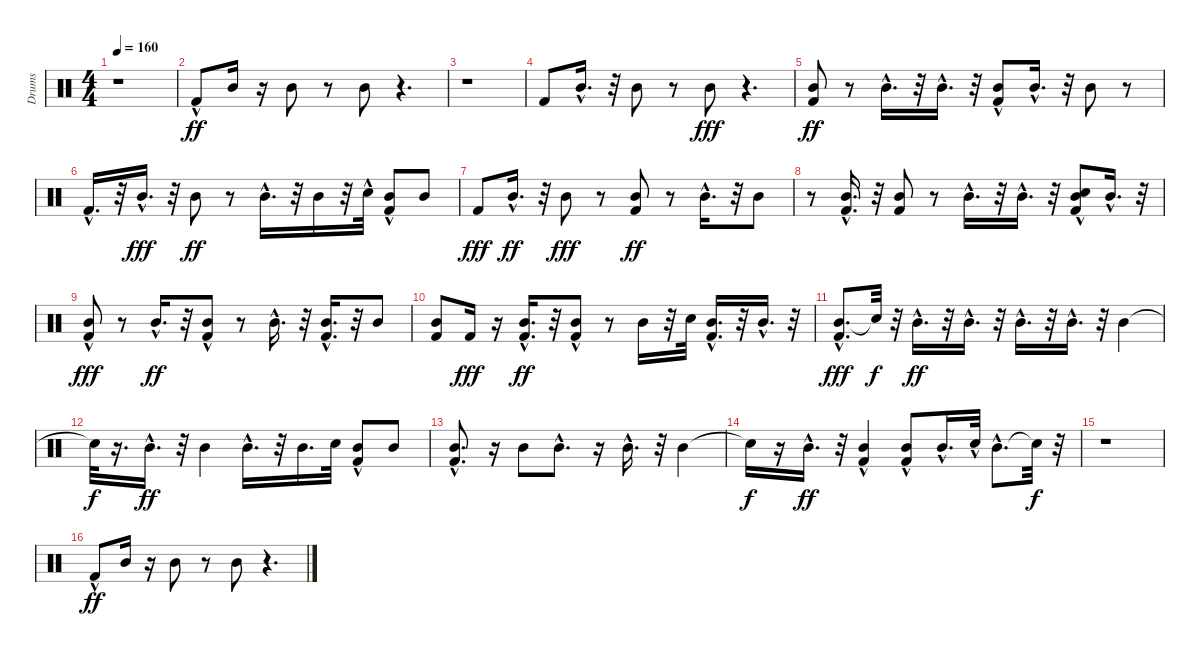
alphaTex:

\track ("Drums" "Drums") {instrument percussion}
\staff {score}
\articulation defaults
\ts (4 4)
\tempo 160
\clef neutral
\ks c
r.1{dy ff} |
"Kick (hit) 2"{hac}.8 "Mid Tom (hit)".16 r.16 "Mid Tom (hit)".8 r.8 "Mid Tom (hit)".8 r.4{d} |
r.1 |
"Kick (hit) 2".8 "Mid Tom (hit)"{hac}.16{d} r.32 "Mid Tom (hit)".8 r.8 "Mid Tom (hit)".8{dy fff} r.4{d} |
("Mid Tom (hit)" "Kick (hit) 2").8{dy ff} r.8 "Mid Tom (hit)"{hac}.16{d} r.32 "Mid Tom (hit)"{hac}.16{d} r.32 ("Mid Tom (hit)"{hac} "Kick (hit) 2").8 "Mid Tom (hit)"{hac}.16{d} r.32 "Mid Tom (hit)".8 r.8 |
"Kick (hit) 2"{hac}.16{d} r.32 "Mid Tom (hit)"{hac}.16{d dy fff} r.32 "Mid Tom (hit)".8{dy ff} r.8 "Mid Tom (hit)"{hac}.16{d} r.32 "Mid Tom (hit)".16 r.32 "Snare (hit) 2"{hac}.32 ("Kick (hit) 2"{hac} "Mid Tom (hit)").8 "Mid Tom (hit)".8 |
"Kick (hit) 2".8{dy fff} "Mid Tom (hit)"{hac}.16{d dy ff} r.32 "Mid Tom (hit)".8{dy fff} r.8 ("Mid Tom (hit)" "Kick (hit) 2").8{dy ff} r.8 "Mid Tom (hit)"{hac}.16{d} r.32 "Mid Tom (hit)".8 |
r.8 ("Kick (hit) 2" "Mid Tom (hit)"{hac}).16{d} r.32 ("Kick (hit) 2" "Mid Tom (hit)").8 r.8 "Mid Tom (hit)"{hac}.16{d} r.32 "Mid Tom (hit)"{hac}.16{d} r.32 ("Snare (hit) 2"{hac} "Mid Tom (hit)"{hac} "Kick (hit) 2"{hac}).8 "Mid Tom (hit)"{hac}.16{d} r.32 |
("Kick (hit) 2"{hac} "Mid Tom (hit)").8{dy fff} r.8 "Mid Tom (hit)"{hac}.16{d dy ff} r.32 ("Mid Tom (hit)" "Kick (hit) 2"{hac}).8 r.8 "Mid Tom (hit)"{hac}.16{d} r.32 ("Mid Tom (hit)"{hac} "Kick (hit) 2").16{d} r.32 "Mid Tom (hit)".8 |
("Mid Tom (hit)" "Kick (hit) 2").8 "Kick (hit) 2".16{dy fff} r.16 ("Mid Tom (hit)"{hac} "Kick (hit) 2").16{d dy ff} r.32 ("Mid Tom (hit)" "Kick (hit) 2"{hac}).8 r.8 "Mid Tom (hit)".16 r.32 "Snare (hit) 2".32 ("Mid Tom (hit)"{hac} "Kick (hit) 2"{hac}).16{d} r.32 "Mid Tom (hit)"{hac}.16{d} r.32 |
("Mid Tom (hit)"{hac} "Kick (hit) 2"{hac}).8{d dy fff} "Snare (hit)"{t}.32{dy f} r.32 "Mid Tom (hit)"{hac}.16{d dy ff} r.32 "Mid Tom (hit)"{hac}.16{d} r.32 "Mid Tom (hit)"{hac}.16{d} r.32 "Mid Tom (hit)"{hac}.16{d} r.32 "Mid Tom (hit)".4 |
"Snare (hit)"{t}.32{dy f} r.16{d} "Mid Tom (hit)"{hac}.16{d dy ff} r.32 "Mid Tom (hit)".4 "Mid Tom (hit)"{hac}.16{d} r.32 "Mid Tom (hit)".16{d} "Snare (hit) 2".32 ("Kick (hit) 2"{hac} "Mid Tom (hit)").8 "Mid Tom (hit)".8 |
("Kick (hit) 2"{hac} "Mid Tom (hit)"{hac}).8{d} r.16 "Mid Tom (hit)".8 "Mid Tom (hit)"{hac}.8{d} r.16 "Mid Tom (hit)"{hac}.16{d} r.32 "Mid Tom (hit)".4 |
"Snare (hit)"{t}.16{dy f} r.16 "Mid Tom (hit)"{hac}.16{d dy ff} r.32 ("Mid Tom (hit)" "Kick (hit) 2"{hac}).4 ("Mid Tom (hit)" "Kick (hit) 2"{hac}).8 "Mid Tom (hit)"{hac}.16{d} "Snare (hit) 2"{hac}.32 "Mid Tom (hit)"{hac}.8{d} "Snare (hit)"{t}.32{dy f} r.32 |
r.1 |
"Kick (hit) 2"{hac}.8{dy ff} "Mid Tom (hit)".16 r.16 "Mid Tom (hit)".8 r.8 "Mid Tom (hit)".8 r.4{d}
